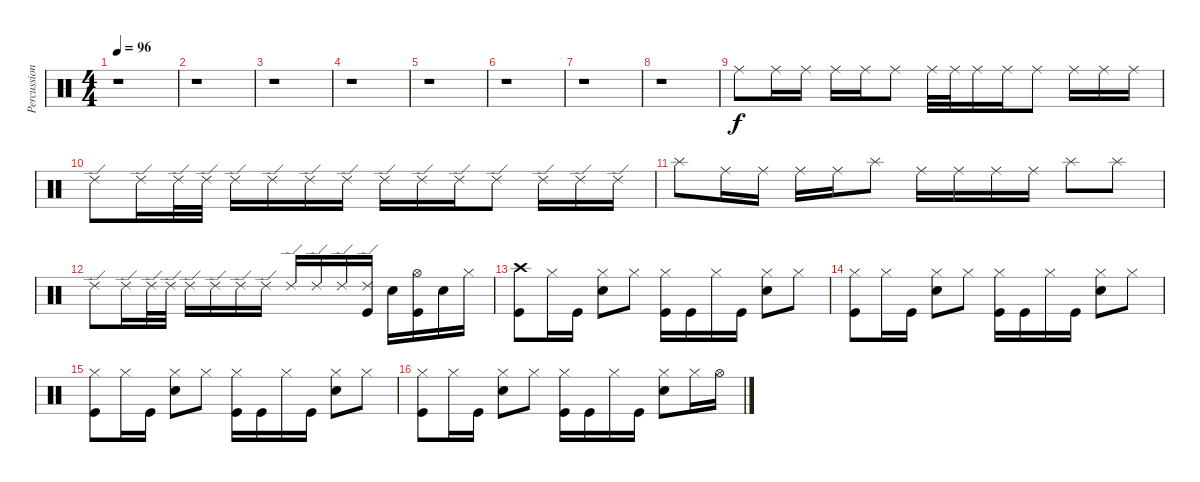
\track ("Percussion" "Percussion") {instrument percussion}
\staff {score}
\articulation defaults
\ts (4 4)
\tempo 96
\clef neutral
\ks c
r.1{dy f} |
r.1 |
r.1 |
r.1 |
r.1 |
r.1 |
r.1 |
r.1 |
"Ride (middle)".8 "Ride (middle)".16 "Ride (middle)".16 "Ride (middle)".16 "Ride (middle)".16 "Ride (middle)".8 "Ride (middle)".32 "Ride (middle)".32 "Ride (middle)".16 "Ride (middle)".16 "Ride (middle)".8 "Ride (middle)".16 "Ride (middle)".16 "Ride (middle)".16 |
"Ride (edge) 2".8 "Ride (edge) 2".16 "Ride (edge) 2".32 "Ride (edge) 2".32 "Ride (edge) 2".16 "Ride (edge) 2".16 "Ride (edge) 2".16 "Ride (edge) 2".16 "Ride (edge) 2".16 "Ride (edge) 2".16 "Ride (edge) 2".16 "Ride (edge) 2".8 "Ride (edge) 2".16 "Ride (edge) 2".16 "Ride (edge) 2".16 |
"Splash (hit)".8 "Ride (middle)".16 "Ride (middle)".16 "Ride (middle)".16 "Ride (middle)".16 "Splash (hit)".8 "Ride (middle)".16 "Ride (middle)".16 "Ride (middle)".16 "Ride (middle)".16 "Splash (hit)".8 "Splash (hit)".8 |
"Ride (edge) 2".8 "Ride (edge) 2".16 "Ride (edge) 2".32 "Ride (edge) 2".32 "Ride (edge) 2".16 "Ride (edge) 2".16 "Ride (edge) 2".16 "Ride (edge) 2".16 "Ride (edge) 2".16 "Ride (edge) 2".16 "Ride (edge) 2".16 ("Ride (edge) 2" "Kick (hit)").16 "Electric Snare (hit)".16 ("Hi-Hat (open)" "Kick (hit)").16 "Electric Snare (hit)".16 "Hi-Hat (closed)".16 |
("Crash high (hit)" "Kick (hit)").8 "Hi-Hat (closed)".16 "Kick (hit)".16 ("Hi-Hat (closed)" "Snare (hit) 2").8 "Hi-Hat (closed)".8 ("Hi-Hat (closed)" "Kick (hit)").16 "Kick (hit)".16 "Hi-Hat (closed)".16 "Kick (hit)".16 ("Hi-Hat (closed)" "Snare (hit) 2").8 "Hi-Hat (closed)".8 |
("Hi-Hat (closed)" "Kick (hit)").8 "Hi-Hat (closed)".16 "Kick (hit)".16 ("Hi-Hat (closed)" "Snare (hit) 2").8 "Hi-Hat (closed)".8 ("Hi-Hat (closed)" "Kick (hit)").16 "Kick (hit)".16 "Hi-Hat (closed)".16 "Kick (hit)".16 ("Hi-Hat (closed)" "Snare (hit) 2").8 "Hi-Hat (closed)".8 |
("Hi-Hat (closed)" "Kick (hit)").8 "Hi-Hat (closed)".16 "Kick (hit)".16 ("Hi-Hat (closed)" "Snare (hit) 2").8 "Hi-Hat (closed)".8 ("Hi-Hat (closed)" "Kick (hit)").16 "Kick (hit)".16 "Hi-Hat (closed)".16 "Kick (hit)".16 ("Hi-Hat (closed)" "Snare (hit) 2").8 "Hi-Hat (closed)".8 |
("Hi-Hat (closed)" "Kick (hit)").8 "Hi-Hat (closed)".16 "Kick (hit)".16 ("Hi-Hat (closed)" "Snare (hit) 2").8 "Hi-Hat (closed)".8 ("Hi-Hat (closed)" "Kick (hit)").16 "Kick (hit)".16 "Hi-Hat (closed)".16 "Kick (hit)".16 ("Hi-Hat (closed)" "Snare (hit) 2").8 "Hi-Hat (closed)".16 "Hi-Hat (open)".16
